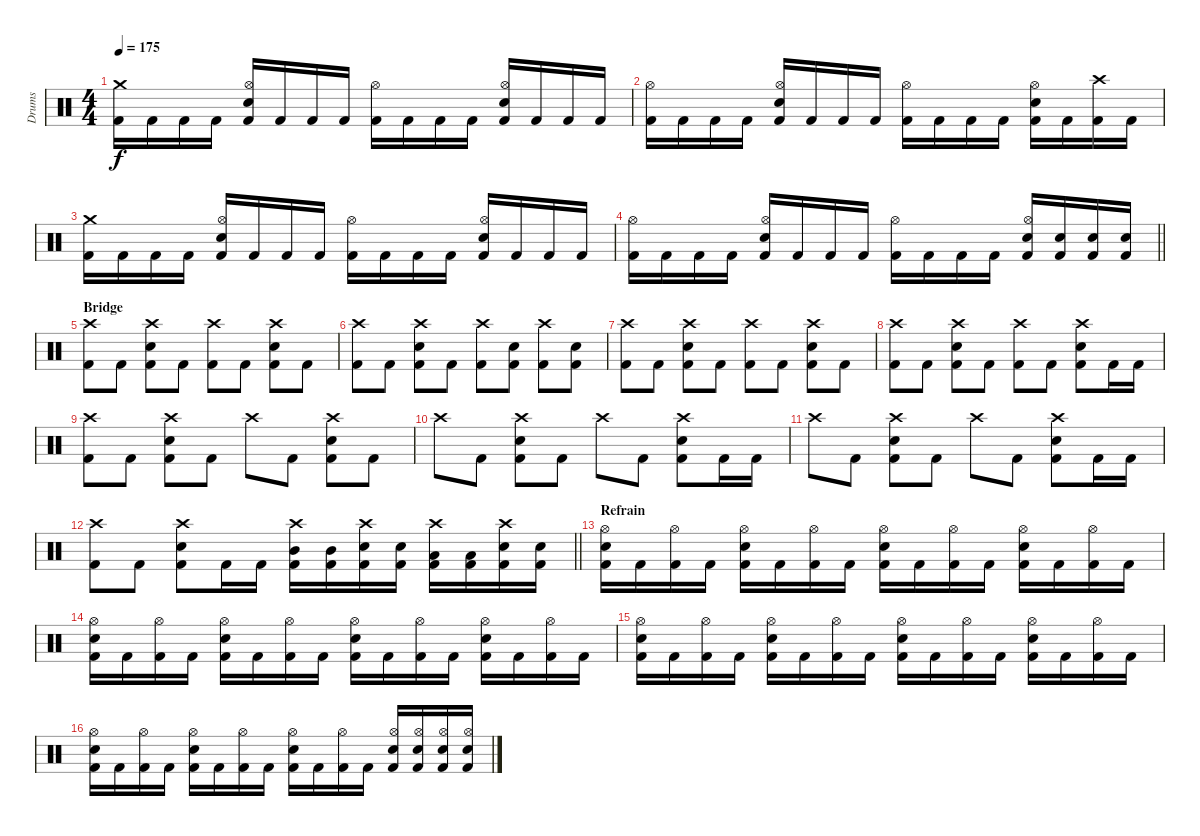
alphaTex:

\track ("Drums" "Drums") {instrument percussion}
\staff {score}
\articulation defaults
\ts (4 4)
\tempo 175
\clef neutral
\ks c
("Crash medium (hit)" "Kick (hit) 2").16{dy f} "Kick (hit) 2".16 "Kick (hit) 2".16 "Kick (hit) 2".16 ("Hi-Hat (open)" "Snare (hit) 2" "Kick (hit) 2").16 "Kick (hit) 2".16 "Kick (hit) 2".16 "Kick (hit) 2".16 ("Hi-Hat (open)" "Kick (hit) 2").16 "Kick (hit) 2".16 "Kick (hit) 2".16 "Kick (hit) 2".16 ("Hi-Hat (open)" "Snare (hit) 2" "Kick (hit) 2").16 "Kick (hit) 2".16 "Kick (hit) 2".16 "Kick (hit) 2".16 |
("Hi-Hat (open)" "Kick (hit) 2").16 "Kick (hit) 2".16 "Kick (hit) 2".16 "Kick (hit) 2".16 ("Hi-Hat (open)" "Snare (hit) 2" "Kick (hit) 2").16 "Kick (hit) 2".16 "Kick (hit) 2".16 "Kick (hit) 2".16 ("Hi-Hat (open)" "Kick (hit) 2").16 "Kick (hit) 2".16 "Kick (hit) 2".16 "Kick (hit) 2".16 ("Hi-Hat (open)" "Snare (hit) 2" "Kick (hit) 2").16 "Kick (hit) 2".16 ("Crash high (hit)" "Kick (hit) 2").16 "Kick (hit) 2".16 |
("Crash medium (hit)" "Kick (hit) 2").16 "Kick (hit) 2".16 "Kick (hit) 2".16 "Kick (hit) 2".16 ("Hi-Hat (open)" "Snare (hit) 2" "Kick (hit) 2").16 "Kick (hit) 2".16 "Kick (hit) 2".16 "Kick (hit) 2".16 ("Hi-Hat (open)" "Kick (hit) 2").16 "Kick (hit) 2".16 "Kick (hit) 2".16 "Kick (hit) 2".16 ("Hi-Hat (open)" "Snare (hit) 2" "Kick (hit) 2").16 "Kick (hit) 2".16 "Kick (hit) 2".16 "Kick (hit) 2".16 |
\barLineRight lightlight
("Hi-Hat (open)" "Kick (hit) 2").16 "Kick (hit) 2".16 "Kick (hit) 2".16 "Kick (hit) 2".16 ("Hi-Hat (open)" "Snare (hit) 2" "Kick (hit) 2").16 "Kick (hit) 2".16 "Kick (hit) 2".16 "Kick (hit) 2".16 ("Hi-Hat (open)" "Kick (hit) 2").16 "Kick (hit) 2".16 "Kick (hit) 2".16 "Kick (hit) 2".16 ("Hi-Hat (open)" "Snare (hit) 2" "Kick (hit) 2").16 ("Snare (hit) 2" "Kick (hit) 2").16 ("Snare (hit) 2" "Kick (hit) 2").16 ("Snare (hit) 2" "Kick (hit) 2").16 |
\section ("" "Bridge")
("Crash high (hit)" "Kick (hit) 2").8 "Kick (hit) 2".8 ("Crash high (hit)" "Snare (hit) 2" "Kick (hit) 2").8 "Kick (hit) 2".8 ("Crash high (hit)" "Kick (hit) 2").8 "Kick (hit) 2".8 ("Crash high (hit)" "Snare (hit) 2" "Kick (hit) 2").8 "Kick (hit) 2".8 |
("Crash high (hit)" "Kick (hit) 2").8 "Kick (hit) 2".8 ("Crash high (hit)" "Snare (hit) 2" "Kick (hit) 2").8 "Kick (hit) 2".8 ("Crash high (hit)" "Kick (hit) 2").8 ("Snare (hit) 2" "Kick (hit) 2").8 ("Crash high (hit)" "Kick (hit) 2").8 ("Snare (hit) 2" "Kick (hit) 2").8 |
("Crash high (hit)" "Kick (hit) 2").8 "Kick (hit) 2".8 ("Crash high (hit)" "Snare (hit) 2" "Kick (hit) 2").8 "Kick (hit) 2".8 ("Crash high (hit)" "Kick (hit) 2").8 "Kick (hit) 2".8 ("Crash high (hit)" "Snare (hit) 2" "Kick (hit) 2").8 "Kick (hit) 2".8 |
("Crash high (hit)" "Kick (hit) 2").8 "Kick (hit) 2".8 ("Crash high (hit)" "Snare (hit) 2" "Kick (hit) 2").8 "Kick (hit) 2".8 ("Crash high (hit)" "Kick (hit) 2").8 "Kick (hit) 2".8 ("Crash high (hit)" "Snare (hit) 2" "Kick (hit) 2").8 "Kick (hit) 2".16 "Kick (hit) 2".16 |
("Crash high (hit)" "Kick (hit) 2").8 "Kick (hit) 2".8 ("Crash high (hit)" "Snare (hit) 2" "Kick (hit) 2").8 "Kick (hit) 2".8 "Crash high (hit)".8 "Kick (hit) 2".8 ("Crash high (hit)" "Snare (hit) 2" "Kick (hit) 2").8 "Kick (hit) 2".8 |
"Crash high (hit)".8 "Kick (hit) 2".8 ("Crash high (hit)" "Snare (hit) 2" "Kick (hit) 2").8 "Kick (hit) 2".8 "Crash high (hit)".8 "Kick (hit) 2".8 ("Crash high (hit)" "Snare (hit) 2" "Kick (hit) 2").8 "Kick (hit) 2".16 "Kick (hit) 2".16 |
"Crash high (hit)".8 "Kick (hit) 2".8 ("Crash high (hit)" "Snare (hit) 2" "Kick (hit) 2").8 "Kick (hit) 2".8 "Crash high (hit)".8 "Kick (hit) 2".8 ("Crash high (hit)" "Snare (hit) 2" "Kick (hit) 2").8 "Kick (hit) 2".16 "Kick (hit) 2".16 |
\barLineRight lightlight
("Crash high (hit)" "Kick (hit) 2").8 "Kick (hit) 2".8 ("Crash high (hit)" "Snare (hit) 2" "Kick (hit) 2").8 "Kick (hit) 2".16 "Kick (hit) 2".16 ("Crash high (hit)" "Mid Tom (hit)" "Kick (hit) 2").16 ("Mid Tom (hit)" "Kick (hit) 2").16 ("Crash high (hit)" "Snare (hit) 2" "Kick (hit) 2").16 ("Snare (hit) 2" "Kick (hit) 2").16 ("Crash high (hit)" "Low Tom (hit)" "Kick (hit) 2").16 ("Low Tom (hit)" "Kick (hit) 2").16 ("Crash high (hit)" "Snare (hit) 2" "Kick (hit) 2").16 ("Snare (hit) 2" "Kick (hit) 2").16 |
\section ("" "Refrain")
("Hi-Hat (open)" "Snare (hit) 2" "Kick (hit) 2").16 "Kick (hit) 2".16 ("Hi-Hat (open)" "Kick (hit) 2").16 "Kick (hit) 2".16 ("Hi-Hat (open)" "Snare (hit) 2" "Kick (hit) 2").16 "Kick (hit) 2".16 ("Hi-Hat (open)" "Kick (hit) 2").16 "Kick (hit) 2".16 ("Hi-Hat (open)" "Snare (hit) 2" "Kick (hit) 2").16 "Kick (hit) 2".16 ("Hi-Hat (open)" "Kick (hit) 2").16 "Kick (hit) 2".16 ("Hi-Hat (open)" "Snare (hit) 2" "Kick (hit) 2").16 "Kick (hit) 2".16 ("Hi-Hat (open)" "Kick (hit) 2").16 "Kick (hit) 2".16 |
("Hi-Hat (open)" "Snare (hit) 2" "Kick (hit) 2").16 "Kick (hit) 2".16 ("Hi-Hat (open)" "Kick (hit) 2").16 "Kick (hit) 2".16 ("Hi-Hat (open)" "Snare (hit) 2" "Kick (hit) 2").16 "Kick (hit) 2".16 ("Hi-Hat (open)" "Kick (hit) 2").16 "Kick (hit) 2".16 ("Hi-Hat (open)" "Snare (hit) 2" "Kick (hit) 2").16 "Kick (hit) 2".16 ("Hi-Hat (open)" "Kick (hit) 2").16 "Kick (hit) 2".16 ("Hi-Hat (open)" "Snare (hit) 2" "Kick (hit) 2").16 "Kick (hit) 2".16 ("Hi-Hat (open)" "Kick (hit) 2").16 "Kick (hit) 2".16 |
("Hi-Hat (open)" "Snare (hit) 2" "Kick (hit) 2").16 "Kick (hit) 2".16 ("Hi-Hat (open)" "Kick (hit) 2").16 "Kick (hit) 2".16 ("Hi-Hat (open)" "Snare (hit) 2" "Kick (hit) 2").16 "Kick (hit) 2".16 ("Hi-Hat (open)" "Kick (hit) 2").16 "Kick (hit) 2".16 ("Hi-Hat (open)" "Snare (hit) 2" "Kick (hit) 2").16 "Kick (hit) 2".16 ("Hi-Hat (open)" "Kick (hit) 2").16 "Kick (hit) 2".16 ("Hi-Hat (open)" "Snare (hit) 2" "Kick (hit) 2").16 "Kick (hit) 2".16 ("Hi-Hat (open)" "Kick (hit) 2").16 "Kick (hit) 2".16 |
("Hi-Hat (open)" "Snare (hit) 2" "Kick (hit) 2").16 "Kick (hit) 2".16 ("Hi-Hat (open)" "Kick (hit) 2").16 "Kick (hit) 2".16 ("Hi-Hat (open)" "Snare (hit) 2" "Kick (hit) 2").16 "Kick (hit) 2".16 ("Hi-Hat (open)" "Kick (hit) 2").16 "Kick (hit) 2".16 ("Hi-Hat (open)" "Snare (hit) 2" "Kick (hit) 2").16 "Kick (hit) 2".16 ("Hi-Hat (open)" "Kick (hit) 2").16 "Kick (hit) 2".16 ("Hi-Hat (open)" "Snare (hit) 2" "Kick (hit) 2").16 ("Hi-Hat (open)" "Snare (hit) 2" "Kick (hit) 2").16 ("Hi-Hat (open)" "Snare (hit) 2" "Kick (hit) 2").16 ("Hi-Hat (open)" "Snare (hit) 2" "Kick (hit) 2").16
